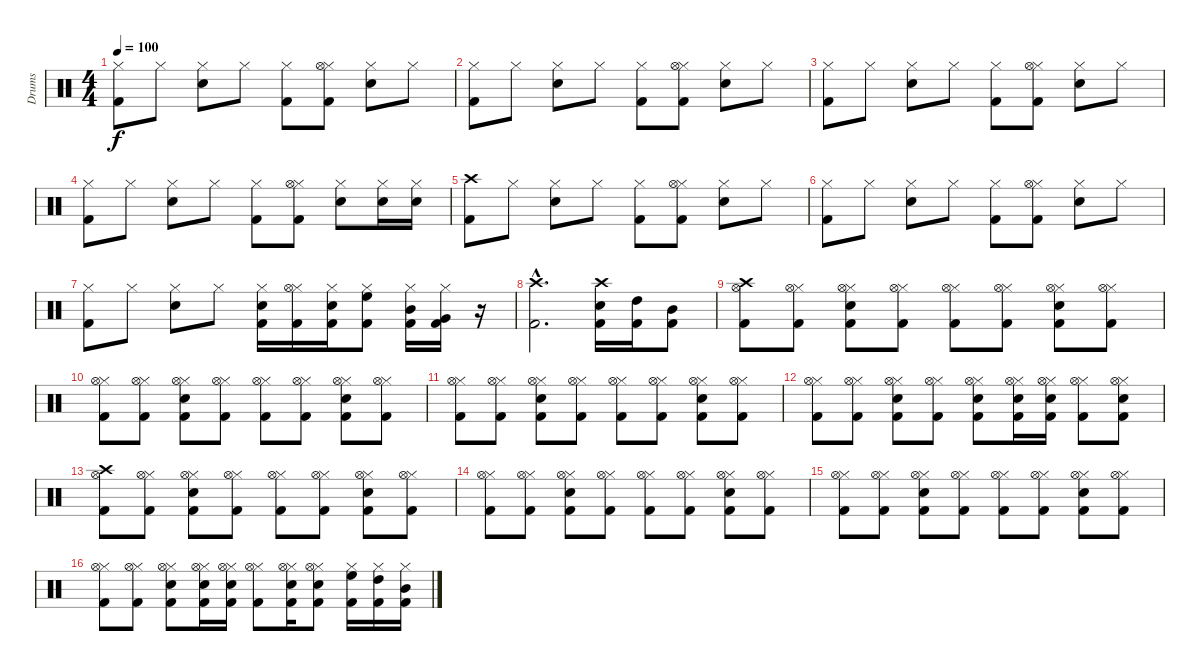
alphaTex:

\track ("Drums" "Drums") {instrument percussion}
\staff {score}
\articulation defaults
\ts (4 4)
\tempo 100
\clef neutral
\ks c
("Hi-Hat (closed)" "Kick (hit) 2").8{dy f} "Hi-Hat (closed)".8 ("Hi-Hat (closed)" "Electric Snare (hit)").8 "Hi-Hat (closed)".8 ("Hi-Hat (closed)" "Kick (hit) 2").8 ("Hi-Hat (closed)" "Kick (hit) 2" "Hi-Hat (open)").8 ("Hi-Hat (closed)" "Electric Snare (hit)").8 "Hi-Hat (closed)".8 |
("Hi-Hat (closed)" "Kick (hit) 2").8 "Hi-Hat (closed)".8 ("Hi-Hat (closed)" "Electric Snare (hit)").8 "Hi-Hat (closed)".8 ("Hi-Hat (closed)" "Kick (hit) 2").8 ("Hi-Hat (closed)" "Kick (hit) 2" "Hi-Hat (open)").8 ("Hi-Hat (closed)" "Electric Snare (hit)").8 "Hi-Hat (closed)".8 |
("Hi-Hat (closed)" "Kick (hit) 2").8 "Hi-Hat (closed)".8 ("Hi-Hat (closed)" "Electric Snare (hit)").8 "Hi-Hat (closed)".8 ("Hi-Hat (closed)" "Kick (hit) 2").8 ("Hi-Hat (closed)" "Kick (hit) 2" "Hi-Hat (open)").8 ("Hi-Hat (closed)" "Electric Snare (hit)").8 "Hi-Hat (closed)".8 |
("Hi-Hat (closed)" "Kick (hit) 2").8 "Hi-Hat (closed)".8 ("Hi-Hat (closed)" "Electric Snare (hit)").8 "Hi-Hat (closed)".8 ("Hi-Hat (closed)" "Kick (hit) 2").8 ("Hi-Hat (closed)" "Kick (hit) 2" "Hi-Hat (open)").8 ("Hi-Hat (closed)" "Electric Snare (hit)").8 ("Hi-Hat (closed)" "Electric Snare (hit)").16 ("Hi-Hat (closed)" "Electric Snare (hit)").16 |
("Crash high (hit)" "Kick (hit) 2").8 "Hi-Hat (closed)".8 ("Hi-Hat (closed)" "Electric Snare (hit)").8 "Hi-Hat (closed)".8 ("Hi-Hat (closed)" "Kick (hit) 2").8 ("Hi-Hat (closed)" "Kick (hit) 2" "Hi-Hat (open)").8 ("Hi-Hat (closed)" "Electric Snare (hit)").8 "Hi-Hat (closed)".8 |
("Hi-Hat (closed)" "Kick (hit) 2").8 "Hi-Hat (closed)".8 ("Hi-Hat (closed)" "Electric Snare (hit)").8 "Hi-Hat (closed)".8 ("Hi-Hat (closed)" "Kick (hit) 2").8 ("Hi-Hat (closed)" "Kick (hit) 2" "Hi-Hat (open)").8 ("Hi-Hat (closed)" "Electric Snare (hit)").8 "Hi-Hat (closed)".8 |
("Hi-Hat (closed)" "Kick (hit) 2").8 "Hi-Hat (closed)".8 ("Hi-Hat (closed)" "Electric Snare (hit)").8 "Hi-Hat (closed)".8 ("Hi-Hat (closed)" "Kick (hit) 2" "Electric Snare (hit)").16 ("Hi-Hat (closed)" "Kick (hit) 2" "Hi-Hat (open)").16 ("Hi-Hat (closed)" "Electric Snare (hit)" "Kick (hit) 2").16 ("Hi-Hat (closed)" "High Floor Tom (hit)" "Kick (hit) 2").8 ("Hi-Hat (closed)" "Mid Tom (hit)" "Kick (hit) 2").16 ("Hi-Hat (closed)" "Very Low Tom (hit)" "Kick (hit) 2").16 r.16 |
("Crash high (hit)"{hac} "Kick (hit) 2"{hac}).2{d} ("Crash high (hit)" "Electric Snare (hit)" "Kick (hit) 2").16 ("High Tom (hit)" "Kick (hit) 2").16 ("Mid Tom (hit)" "Kick (hit) 2").8 |
("Crash high (hit)" "Kick (hit) 2" "Hi-Hat (open)").8 ("Hi-Hat (closed)" "Kick (hit) 2" "Hi-Hat (open)").8 ("Hi-Hat (closed)" "Kick (hit) 2" "Electric Snare (hit)" "Hi-Hat (open)").8 ("Hi-Hat (closed)" "Kick (hit) 2" "Hi-Hat (open)").8 ("Hi-Hat (closed)" "Kick (hit) 2" "Hi-Hat (open)").8 ("Hi-Hat (closed)" "Kick (hit) 2" "Hi-Hat (open)").8 ("Hi-Hat (closed)" "Kick (hit) 2" "Electric Snare (hit)" "Hi-Hat (open)").8 ("Hi-Hat (closed)" "Kick (hit) 2" "Hi-Hat (open)").8 |
("Hi-Hat (closed)" "Kick (hit) 2" "Hi-Hat (open)").8 ("Hi-Hat (closed)" "Kick (hit) 2" "Hi-Hat (open)").8 ("Hi-Hat (closed)" "Kick (hit) 2" "Electric Snare (hit)" "Hi-Hat (open)").8 ("Hi-Hat (closed)" "Kick (hit) 2" "Hi-Hat (open)").8 ("Hi-Hat (closed)" "Kick (hit) 2" "Hi-Hat (open)").8 ("Hi-Hat (closed)" "Kick (hit) 2" "Hi-Hat (open)").8 ("Hi-Hat (closed)" "Kick (hit) 2" "Electric Snare (hit)" "Hi-Hat (open)").8 ("Hi-Hat (closed)" "Kick (hit) 2" "Hi-Hat (open)").8 |
("Hi-Hat (closed)" "Kick (hit) 2" "Hi-Hat (open)").8 ("Hi-Hat (closed)" "Kick (hit) 2" "Hi-Hat (open)").8 ("Hi-Hat (closed)" "Kick (hit) 2" "Electric Snare (hit)" "Hi-Hat (open)").8 ("Hi-Hat (closed)" "Kick (hit) 2" "Hi-Hat (open)").8 ("Hi-Hat (closed)" "Kick (hit) 2" "Hi-Hat (open)").8 ("Hi-Hat (closed)" "Kick (hit) 2" "Hi-Hat (open)").8 ("Hi-Hat (closed)" "Kick (hit) 2" "Electric Snare (hit)" "Hi-Hat (open)").8 ("Hi-Hat (closed)" "Kick (hit) 2" "Hi-Hat (open)").8 |
("Hi-Hat (closed)" "Kick (hit) 2" "Hi-Hat (open)").8 ("Hi-Hat (closed)" "Kick (hit) 2" "Hi-Hat (open)").8 ("Hi-Hat (closed)" "Kick (hit) 2" "Electric Snare (hit)" "Hi-Hat (open)").8 ("Hi-Hat (closed)" "Kick (hit) 2" "Hi-Hat (open)").8 ("Hi-Hat (closed)" "Kick (hit) 2" "Electric Snare (hit)" "Hi-Hat (open)").8 ("Hi-Hat (closed)" "Kick (hit) 2" "Electric Snare (hit)" "Hi-Hat (open)").16 ("Hi-Hat (closed)" "Kick (hit) 2" "Electric Snare (hit)" "Hi-Hat (open)").16 ("Hi-Hat (closed)" "Kick (hit) 2" "Hi-Hat (open)").8 ("Hi-Hat (closed)" "Kick (hit) 2" "Electric Snare (hit)" "Hi-Hat (open)").8 |
("Crash high (hit)" "Kick (hit) 2" "Hi-Hat (open)").8 ("Hi-Hat (closed)" "Kick (hit) 2" "Hi-Hat (open)").8 ("Hi-Hat (closed)" "Kick (hit) 2" "Electric Snare (hit)" "Hi-Hat (open)").8 ("Hi-Hat (closed)" "Kick (hit) 2" "Hi-Hat (open)").8 ("Hi-Hat (closed)" "Kick (hit) 2" "Hi-Hat (open)").8 ("Hi-Hat (closed)" "Kick (hit) 2" "Hi-Hat (open)").8 ("Hi-Hat (closed)" "Kick (hit) 2" "Electric Snare (hit)" "Hi-Hat (open)").8 ("Hi-Hat (closed)" "Kick (hit) 2" "Hi-Hat (open)").8 |
("Hi-Hat (closed)" "Kick (hit) 2" "Hi-Hat (open)").8 ("Hi-Hat (closed)" "Kick (hit) 2" "Hi-Hat (open)").8 ("Hi-Hat (closed)" "Kick (hit) 2" "Electric Snare (hit)" "Hi-Hat (open)").8 ("Hi-Hat (closed)" "Kick (hit) 2" "Hi-Hat (open)").8 ("Hi-Hat (closed)" "Kick (hit) 2" "Hi-Hat (open)").8 ("Hi-Hat (closed)" "Kick (hit) 2" "Hi-Hat (open)").8 ("Hi-Hat (closed)" "Kick (hit) 2" "Electric Snare (hit)" "Hi-Hat (open)").8 ("Hi-Hat (closed)" "Kick (hit) 2" "Hi-Hat (open)").8 |
("Hi-Hat (closed)" "Kick (hit) 2" "Hi-Hat (open)").8 ("Hi-Hat (closed)" "Kick (hit) 2" "Hi-Hat (open)").8 ("Hi-Hat (closed)" "Kick (hit) 2" "Electric Snare (hit)" "Hi-Hat (open)").8 ("Hi-Hat (closed)" "Kick (hit) 2" "Hi-Hat (open)").8 ("Hi-Hat (closed)" "Kick (hit) 2" "Hi-Hat (open)").8 ("Hi-Hat (closed)" "Kick (hit) 2" "Hi-Hat (open)").8 ("Hi-Hat (closed)" "Kick (hit) 2" "Electric Snare (hit)" "Hi-Hat (open)").8 ("Hi-Hat (closed)" "Kick (hit) 2" "Hi-Hat (open)").8 |
("Hi-Hat (closed)" "Kick (hit) 2" "Hi-Hat (open)").8 ("Hi-Hat (closed)" "Kick (hit) 2" "Hi-Hat (open)").8 ("Hi-Hat (closed)" "Kick (hit) 2" "Electric Snare (hit)" "Hi-Hat (open)").8 ("Hi-Hat (closed)" "Kick (hit) 2" "Electric Snare (hit)" "Hi-Hat (open)").16 ("Hi-Hat (closed)" "Kick (hit) 2" "Electric Snare (hit)" "Hi-Hat (open)").16 ("Hi-Hat (closed)" "Kick (hit) 2" "Hi-Hat (open)").8 ("Hi-Hat (closed)" "Kick (hit) 2" "Electric Snare (hit)" "Hi-Hat (open)").16 ("Hi-Hat (closed)" "Kick (hit) 2" "Electric Snare (hit)" "Hi-Hat (open)").8 ("Hi-Hat (closed)" "Kick (hit) 2" "High Floor Tom (hit)").16 ("Hi-Hat (closed)" "Kick (hit) 2" "High Tom (hit)").16 ("Hi-Hat (closed)" "Kick (hit) 2" "Mid Tom (hit)").16
